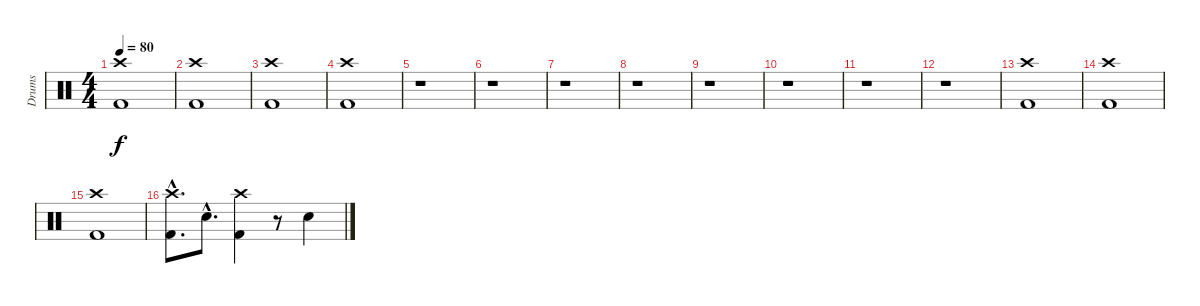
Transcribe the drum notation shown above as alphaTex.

\track ("Drums" "Drums") {instrument percussion}
\staff {score}
\articulation defaults
\ts (4 4)
\tempo 80
\clef neutral
\ks c
("Crash high (hit)" "Kick (hit) 2").1{dy f} |
("Crash high (hit)" "Kick (hit) 2").1 |
("Crash high (hit)" "Kick (hit) 2").1 |
("Crash high (hit)" "Kick (hit) 2").1 |
r.1 |
r.1 |
r.1 |
r.1 |
r.1 |
r.1 |
r.1 |
r.1 |
("Crash high (hit)" "Kick (hit) 2").1 |
("Crash high (hit)" "Kick (hit) 2").1 |
("Crash high (hit)" "Kick (hit) 2").1 |
("Crash high (hit)"{hac} "Kick (hit) 2"{hac}).8{d} "Snare (hit) 2"{hac}.8{d} ("Crash high (hit)" "Kick (hit) 2").4 r.8 "Snare (hit) 2".4
